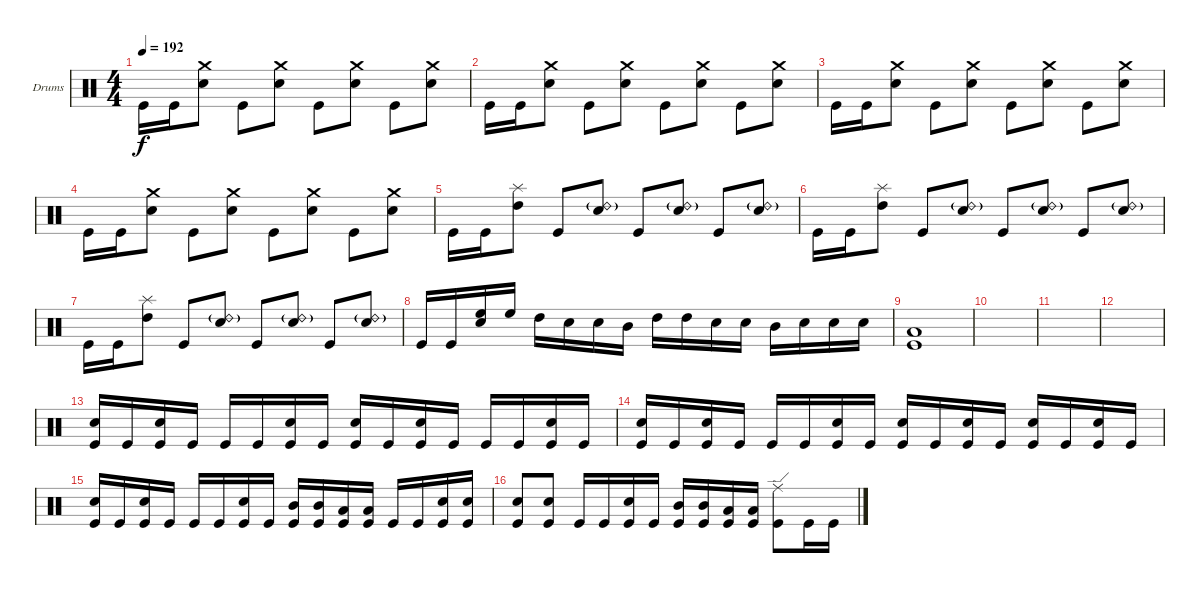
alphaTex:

\defaultSystemsLayout 4
\bracketExtendMode groupsimilarinstruments
\firstSystemTrackNameOrientation horizontal
\otherSystemsTrackNameOrientation horizontal
\track ("Drumkit" "Drums") {instrument percussion}
\staff {score}
\articulation defaults
\ts (4 4)
\tempo 192
\clef neutral
\scale
0.333333
\ks c "Kick (hit)".16{dy f} "Kick (hit)".16
("Snare (hit) 2" "Crash medium (hit)").8 "Kick (hit)".8 ("Snare (hit) 2" "Crash medium (hit)").8 "Kick (hit)".8 ("Snare (hit) 2" "Crash medium (hit)").8 "Kick (hit)".8 ("Snare (hit) 2" "Crash medium (hit)").8 |
\scale
0.333333 "Kick (hit)".16 "Kick (hit)".16 ("Snare (hit) 2" "Crash medium (hit)").8 "Kick (hit)".8 ("Snare (hit) 2" "Crash medium (hit)").8 "Kick (hit)".8 ("Snare (hit) 2" "Crash medium (hit)").8 "Kick (hit)".8 ("Snare (hit) 2" "Crash medium (hit)").8 |
\scale
0.333333 "Kick (hit)".16 "Kick (hit)".16 ("Snare (hit) 2" "Crash medium (hit)").8 "Kick (hit)".8 ("Snare (hit) 2" "Crash medium (hit)").8 "Kick (hit)".8 ("Snare (hit) 2" "Crash medium (hit)").8 "Kick (hit)".8 ("Snare (hit) 2" "Crash medium (hit)").8 |
\scale
0.333333 "Kick (hit)".16 "Kick (hit)".16 ("Snare (hit) 2" "Crash medium (hit)").8 "Kick (hit)".8 ("Snare (hit) 2" "Crash medium (hit)").8 "Kick (hit)".8 ("Snare (hit) 2" "Crash medium (hit)").8 "Kick (hit)".8 ("Snare (hit) 2" "Crash medium (hit)").8 |
\scale
0.333333 "Kick (hit)".16 "Kick (hit)".16 ("High Tom (hit)" "Splash (hit)").8 "Kick (hit)".8 ("Snare (hit) 2" "Ride (bell) 2"{g}).8 "Kick (hit)".8 ("Snare (hit) 2" "Ride (bell) 2"{g}).8 "Kick (hit)".8 ("Snare (hit) 2" "Ride (bell) 2"{g}).8 |
\scale
0.333333 "Kick (hit)".16 "Kick (hit)".16 ("High Tom (hit)" "Splash (hit)").8 "Kick (hit)".8 ("Snare (hit) 2" "Ride (bell) 2"{g}).8 "Kick (hit)".8 ("Snare (hit) 2" "Ride (bell) 2"{g}).8 "Kick (hit)".8 ("Snare (hit) 2" "Ride (bell) 2"{g}).8 |
\scale
0.333333 "Kick (hit)".16 "Kick (hit)".16 ("High Tom (hit)" "Splash (hit)").8 "Kick (hit)".8 ("Snare (hit) 2" "Ride (bell) 2"{g}).8 "Kick (hit)".8 ("Snare (hit) 2" "Ride (bell) 2"{g}).8 "Kick (hit)".8 ("Snare (hit) 2" "Ride (bell) 2"{g}).8 |
\scale
0.333333 "Kick (hit)".16 "Kick (hit)".16 ("Snare (hit) 2" "High Floor Tom (hit)").16 "High Floor Tom (hit)".16 "High Tom (hit)".16 "Snare (hit) 2".16 "Snare (hit) 2".16 "Mid Tom (hit)".16 "High Tom (hit)".16 "High Tom (hit)".16 "Snare (hit) 2".16 "Snare (hit) 2".16 "Mid Tom (hit)".16 "Snare (hit) 2".16 "Snare (hit) 2".16 "Snare (hit) 2".16 |
\scale
0.333333 ("Low Tom (hit)" "Kick (hit)").1 |
\scale
0.333333 |
\scale
0.333333 |
\scale
0.333333 |
\scale
0.333333 ("Kick (hit)" "Snare (hit) 2").16 "Kick (hit)".16 ("Kick (hit)" "Snare (hit) 2").16 "Kick (hit)".16 "Kick (hit)".16 "Kick (hit)".16 ("Kick (hit)" "Snare (hit) 2").16 "Kick (hit)".16 ("Kick (hit)" "Snare (hit) 2").16 "Kick (hit)".16 ("Kick (hit)" "Snare (hit) 2").16 "Kick (hit)".16 "Kick (hit)".16 "Kick (hit)".16 ("Kick (hit)" "Snare (hit) 2").16 "Kick (hit)".16 |
\scale
0.333333 ("Kick (hit)" "Snare (hit) 2").16 "Kick (hit)".16 ("Kick (hit)" "Snare (hit) 2").16 "Kick (hit)".16 "Kick (hit)".16 "Kick (hit)".16 ("Kick (hit)" "Snare (hit) 2").16 "Kick (hit)".16 ("Kick (hit)" "Snare (hit) 2").16 "Kick (hit)".16 ("Kick (hit)" "Snare (hit) 2").16 "Kick (hit)".16 ("Kick (hit)" "Snare (hit) 2").16 "Kick (hit)".16 ("Kick (hit)" "Snare (hit) 2").16 "Kick (hit)".16 |
\scale
0.333333 ("Kick (hit)" "Snare (hit) 2").16 "Kick (hit)".16 ("Kick (hit)" "Snare (hit) 2").16 "Kick (hit)".16 "Kick (hit)".16 "Kick (hit)".16 ("Kick (hit)" "Snare (hit) 2").16 "Kick (hit)".16 ("Kick (hit)" "Mid Tom (hit)").16 ("Kick (hit)" "Mid Tom (hit)").16 ("Kick (hit)" "Low Tom (hit)").16 ("Kick (hit)" "Low Tom (hit)").16 "Kick (hit)".16 "Kick (hit)".16 ("Kick (hit)" "Snare (hit) 2").16 ("Kick (hit)" "Snare (hit) 2").16 |
\scale
0.333333 ("Kick (hit)" "Snare (hit) 2").8 ("Kick (hit)" "Snare (hit) 2").8 "Kick (hit)".16 "Kick (hit)".16 ("Kick (hit)" "Snare (hit) 2").16 "Kick (hit)".16 ("Kick (hit)" "Mid Tom (hit)").16 ("Kick (hit)" "Mid Tom (hit)").16 ("Kick (hit)" "Low Tom (hit)").16 ("Kick (hit)" "Low Tom (hit)").16 ("Kick (hit)" "Ride (edge)").8 "Kick (hit)".16 "Kick (hit)".16
